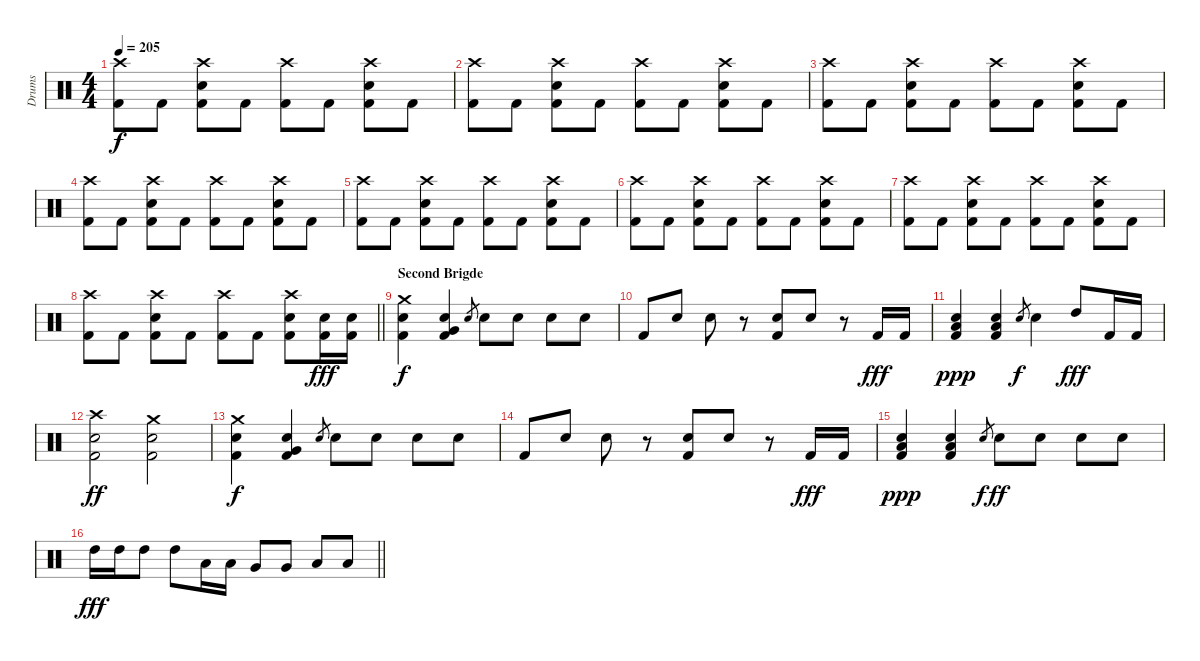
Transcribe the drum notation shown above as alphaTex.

\track ("Drums" "Drums") {instrument percussion}
\staff {score}
\articulation defaults
\ts (4 4)
\tempo 205
\clef neutral
\ks c
("Crash high (hit)" "Kick (hit) 2").8{dy f} "Kick (hit) 2".8 ("Crash high (hit)" "Snare (hit) 2" "Kick (hit) 2").8 "Kick (hit) 2".8 ("Crash high (hit)" "Kick (hit) 2").8 "Kick (hit) 2".8 ("Crash high (hit)" "Snare (hit) 2" "Kick (hit) 2").8 "Kick (hit) 2".8 |
("Crash high (hit)" "Kick (hit) 2").8 "Kick (hit) 2".8 ("Crash high (hit)" "Snare (hit) 2" "Kick (hit) 2").8 "Kick (hit) 2".8 ("Crash high (hit)" "Kick (hit) 2").8 "Kick (hit) 2".8 ("Crash high (hit)" "Snare (hit) 2" "Kick (hit) 2").8 "Kick (hit) 2".8 |
("Crash high (hit)" "Kick (hit) 2").8 "Kick (hit) 2".8 ("Crash high (hit)" "Snare (hit) 2" "Kick (hit) 2").8 "Kick (hit) 2".8 ("Crash high (hit)" "Kick (hit) 2").8 "Kick (hit) 2".8 ("Crash high (hit)" "Snare (hit) 2" "Kick (hit) 2").8 "Kick (hit) 2".8 |
("Crash high (hit)" "Kick (hit) 2").8 "Kick (hit) 2".8 ("Crash high (hit)" "Snare (hit) 2" "Kick (hit) 2").8 "Kick (hit) 2".8 ("Crash high (hit)" "Kick (hit) 2").8 "Kick (hit) 2".8 ("Crash high (hit)" "Snare (hit) 2" "Kick (hit) 2").8 "Kick (hit) 2".8 |
("Crash high (hit)" "Kick (hit) 2").8 "Kick (hit) 2".8 ("Crash high (hit)" "Snare (hit) 2" "Kick (hit) 2").8 "Kick (hit) 2".8 ("Crash high (hit)" "Kick (hit) 2").8 "Kick (hit) 2".8 ("Crash high (hit)" "Snare (hit) 2" "Kick (hit) 2").8 "Kick (hit) 2".8 |
("Crash high (hit)" "Kick (hit) 2").8 "Kick (hit) 2".8 ("Crash high (hit)" "Snare (hit) 2" "Kick (hit) 2").8 "Kick (hit) 2".8 ("Crash high (hit)" "Kick (hit) 2").8 "Kick (hit) 2".8 ("Crash high (hit)" "Snare (hit) 2" "Kick (hit) 2").8 "Kick (hit) 2".8 |
("Crash high (hit)" "Kick (hit) 2").8 "Kick (hit) 2".8 ("Crash high (hit)" "Snare (hit) 2" "Kick (hit) 2").8 "Kick (hit) 2".8 ("Crash high (hit)" "Kick (hit) 2").8 "Kick (hit) 2".8 ("Crash high (hit)" "Snare (hit) 2" "Kick (hit) 2").8 "Kick (hit) 2".8 |
\barLineRight lightlight
("Crash high (hit)" "Kick (hit) 2").8 "Kick (hit) 2".8 ("Crash high (hit)" "Snare (hit) 2" "Kick (hit) 2").8 "Kick (hit) 2".8 ("Crash high (hit)" "Kick (hit) 2").8 "Kick (hit) 2".8 ("Crash high (hit)" "Snare (hit) 2" "Kick (hit) 2").8 ("Snare (hit) 2" "Kick (hit) 2").16{dy fff} ("Snare (hit) 2" "Kick (hit) 2").16 |
\section ("" "Second Brigde")
("Crash medium (hit)" "Snare (hit) 2" "Kick (hit) 2").4{dy f} ("Snare (hit) 2" "Very Low Tom (hit)" "Kick (hit) 2").4 "Snare (hit) 2".8{gr} "Snare (hit) 2".8 "Snare (hit) 2".8 "Snare (hit) 2".8 "Snare (hit) 2".8 |
"Kick (hit) 2".8 "Snare (hit) 2".8 "Snare (hit) 2".8 r.8 ("Snare (hit) 2" "Kick (hit) 2").8 "Snare (hit) 2".8 r.8 "Kick (hit) 2".16{dy fff} "Kick (hit) 2".16 |
("Snare (hit) 2" "Low Floor Tom (hit)" "Kick (hit) 2").4{dy ppp} ("Snare (hit) 2" "Low Floor Tom (hit)" "Kick (hit) 2").4 "Snare (hit) 2".8{gr dy f} "Snare (hit) 2".4 "High Tom (hit)".8{dy fff} "Kick (hit) 2".16 "Kick (hit) 2".16 |
("Crash high (hit)" "Snare (hit) 2" "Kick (hit) 2").2{dy ff} ("Crash medium (hit)" "Snare (hit) 2" "Kick (hit) 2").2 |
("Crash medium (hit)" "Snare (hit) 2" "Kick (hit) 2").4{dy f} ("Snare (hit) 2" "Very Low Tom (hit)" "Kick (hit) 2").4 "Snare (hit) 2".8{gr} "Snare (hit) 2".8 "Snare (hit) 2".8 "Snare (hit) 2".8 "Snare (hit) 2".8 |
"Kick (hit) 2".8 "Snare (hit) 2".8 "Snare (hit) 2".8 r.8 ("Snare (hit) 2" "Kick (hit) 2").8 "Snare (hit) 2".8 r.8 "Kick (hit) 2".16{dy fff} "Kick (hit) 2".16 |
("Snare (hit) 2" "Low Floor Tom (hit)" "Kick (hit) 2").4{dy ppp} ("Snare (hit) 2" "Low Floor Tom (hit)" "Kick (hit) 2").4 "Snare (hit) 2".8{gr dy f} "Snare (hit) 2".8{dy ff} "Snare (hit) 2".8 "Snare (hit) 2".8 "Snare (hit) 2".8 |
\barLineRight lightlight "High Tom (hit)".16{dy fff} "High Tom (hit)".16 "High Tom (hit)".8 "High Tom (hit)".8 "Low Tom (hit)".16 "Low Tom (hit)".16 "Very Low Tom (hit)".8 "Very Low Tom (hit)".8 "Low Floor Tom (hit)".8 "Low Floor Tom (hit)".8
